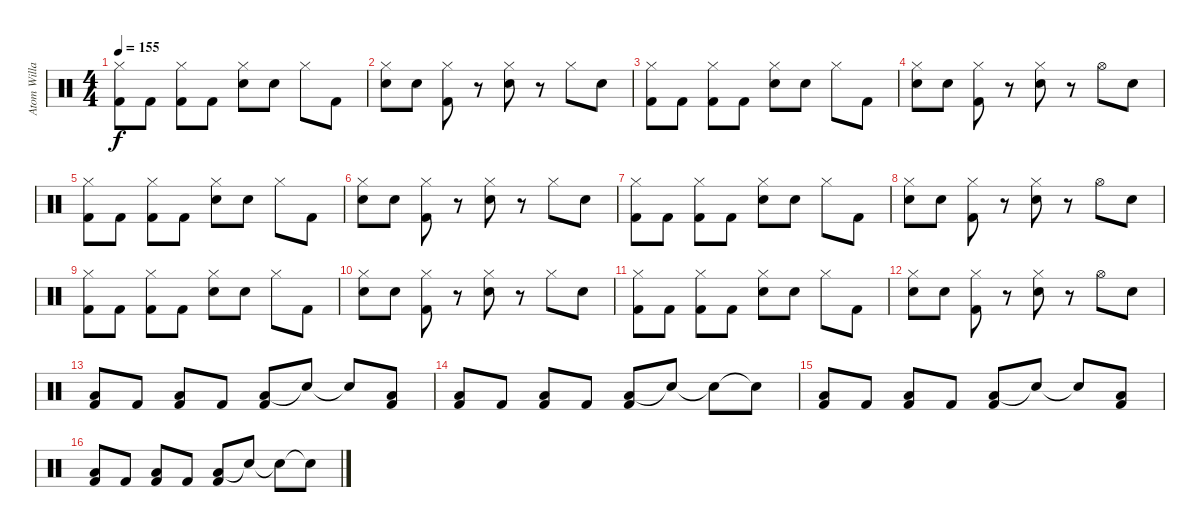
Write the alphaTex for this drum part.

\track ("Atom Willard - Drums" "Atom Willa") {instrument percussion}
\staff {score}
\articulation defaults
\ts (4 4)
\tempo 155
\clef neutral
\ks c
("Kick (hit) 2" "Hi-Hat (closed)").8{dy f} "Kick (hit) 2".8 ("Kick (hit) 2" "Hi-Hat (closed)").8 "Kick (hit) 2".8 ("Electric Snare (hit)" "Hi-Hat (closed)").8 "Snare (hit)".8 "Hi-Hat (closed)".8 "Kick (hit) 2".8 |
("Snare (hit)" "Hi-Hat (closed)").8 "Electric Snare (hit)".8 ("Kick (hit) 2" "Hi-Hat (closed)").8 r.8 ("Electric Snare (hit)" "Hi-Hat (closed)").8 r.8 "Hi-Hat (closed)".8 "Snare (hit)".8 |
("Kick (hit) 2" "Hi-Hat (closed)").8 "Kick (hit) 2".8 ("Kick (hit) 2" "Hi-Hat (closed)").8 "Kick (hit) 2".8 ("Electric Snare (hit)" "Hi-Hat (closed)").8 "Snare (hit)".8 "Hi-Hat (closed)".8 "Kick (hit) 2".8 |
("Snare (hit)" "Hi-Hat (closed)").8 "Electric Snare (hit)".8 ("Kick (hit) 2" "Hi-Hat (closed)").8 r.8 ("Electric Snare (hit)" "Hi-Hat (closed)").8 r.8 "Hi-Hat (open)".8 "Snare (hit)".8 |
("Kick (hit) 2" "Hi-Hat (closed)").8 "Kick (hit) 2".8 ("Kick (hit) 2" "Hi-Hat (closed)").8 "Kick (hit) 2".8 ("Electric Snare (hit)" "Hi-Hat (closed)").8 "Snare (hit)".8 "Hi-Hat (closed)".8 "Kick (hit) 2".8 |
("Snare (hit)" "Hi-Hat (closed)").8 "Electric Snare (hit)".8 ("Kick (hit) 2" "Hi-Hat (closed)").8 r.8 ("Electric Snare (hit)" "Hi-Hat (closed)").8 r.8 "Hi-Hat (closed)".8 "Snare (hit)".8 |
("Kick (hit) 2" "Hi-Hat (closed)").8 "Kick (hit) 2".8 ("Kick (hit) 2" "Hi-Hat (closed)").8 "Kick (hit) 2".8 ("Electric Snare (hit)" "Hi-Hat (closed)").8 "Snare (hit)".8 "Hi-Hat (closed)".8 "Kick (hit) 2".8 |
("Snare (hit)" "Hi-Hat (closed)").8 "Electric Snare (hit)".8 ("Kick (hit) 2" "Hi-Hat (closed)").8 r.8 ("Electric Snare (hit)" "Hi-Hat (closed)").8 r.8 "Hi-Hat (open)".8 "Snare (hit)".8 |
("Kick (hit) 2" "Hi-Hat (closed)").8 "Kick (hit) 2".8 ("Kick (hit) 2" "Hi-Hat (closed)").8 "Kick (hit) 2".8 ("Electric Snare (hit)" "Hi-Hat (closed)").8 "Snare (hit)".8 "Hi-Hat (closed)".8 "Kick (hit) 2".8 |
("Snare (hit)" "Hi-Hat (closed)").8 "Electric Snare (hit)".8 ("Kick (hit) 2" "Hi-Hat (closed)").8 r.8 ("Electric Snare (hit)" "Hi-Hat (closed)").8 r.8 "Hi-Hat (closed)".8 "Snare (hit)".8 |
("Kick (hit) 2" "Hi-Hat (closed)").8 "Kick (hit) 2".8 ("Kick (hit) 2" "Hi-Hat (closed)").8 "Kick (hit) 2".8 ("Electric Snare (hit)" "Hi-Hat (closed)").8 "Snare (hit)".8 "Hi-Hat (closed)".8 "Kick (hit) 2".8 |
("Snare (hit)" "Hi-Hat (closed)").8 "Electric Snare (hit)".8 ("Kick (hit) 2" "Hi-Hat (closed)").8 r.8 ("Electric Snare (hit)" "Hi-Hat (closed)").8 r.8 "Hi-Hat (open)".8 "Snare (hit)".8 |
("Low Tom (hit)" "Kick (hit) 2").8 "Kick (hit) 2".8 ("Low Tom (hit)" "Kick (hit) 2").8 "Kick (hit) 2".8 ("Low Tom (hit)" "Kick (hit) 2").8 "Snare (hit)"{t}.8 "Snare (hit)"{t}.8 ("Low Tom (hit)" "Kick (hit) 2").8 |
("Low Tom (hit)" "Kick (hit) 2").8 "Kick (hit) 2".8 ("Low Tom (hit)" "Kick (hit) 2").8 "Kick (hit) 2".8 ("Low Tom (hit)" "Kick (hit) 2").8 "Snare (hit)"{t}.8 "Snare (hit)"{t}.8 "Snare (hit)"{t}.8 |
("Low Tom (hit)" "Kick (hit) 2").8 "Kick (hit) 2".8 ("Low Tom (hit)" "Kick (hit) 2").8 "Kick (hit) 2".8 ("Low Tom (hit)" "Kick (hit) 2").8 "Snare (hit)"{t}.8 "Snare (hit)"{t}.8 ("Low Tom (hit)" "Kick (hit) 2").8 |
("Low Tom (hit)" "Kick (hit) 2").8 "Kick (hit) 2".8 ("Low Tom (hit)" "Kick (hit) 2").8 "Kick (hit) 2".8 ("Low Tom (hit)" "Kick (hit) 2").8 "Snare (hit)"{t}.8 "Snare (hit)"{t}.8 "Snare (hit)"{t}.8
